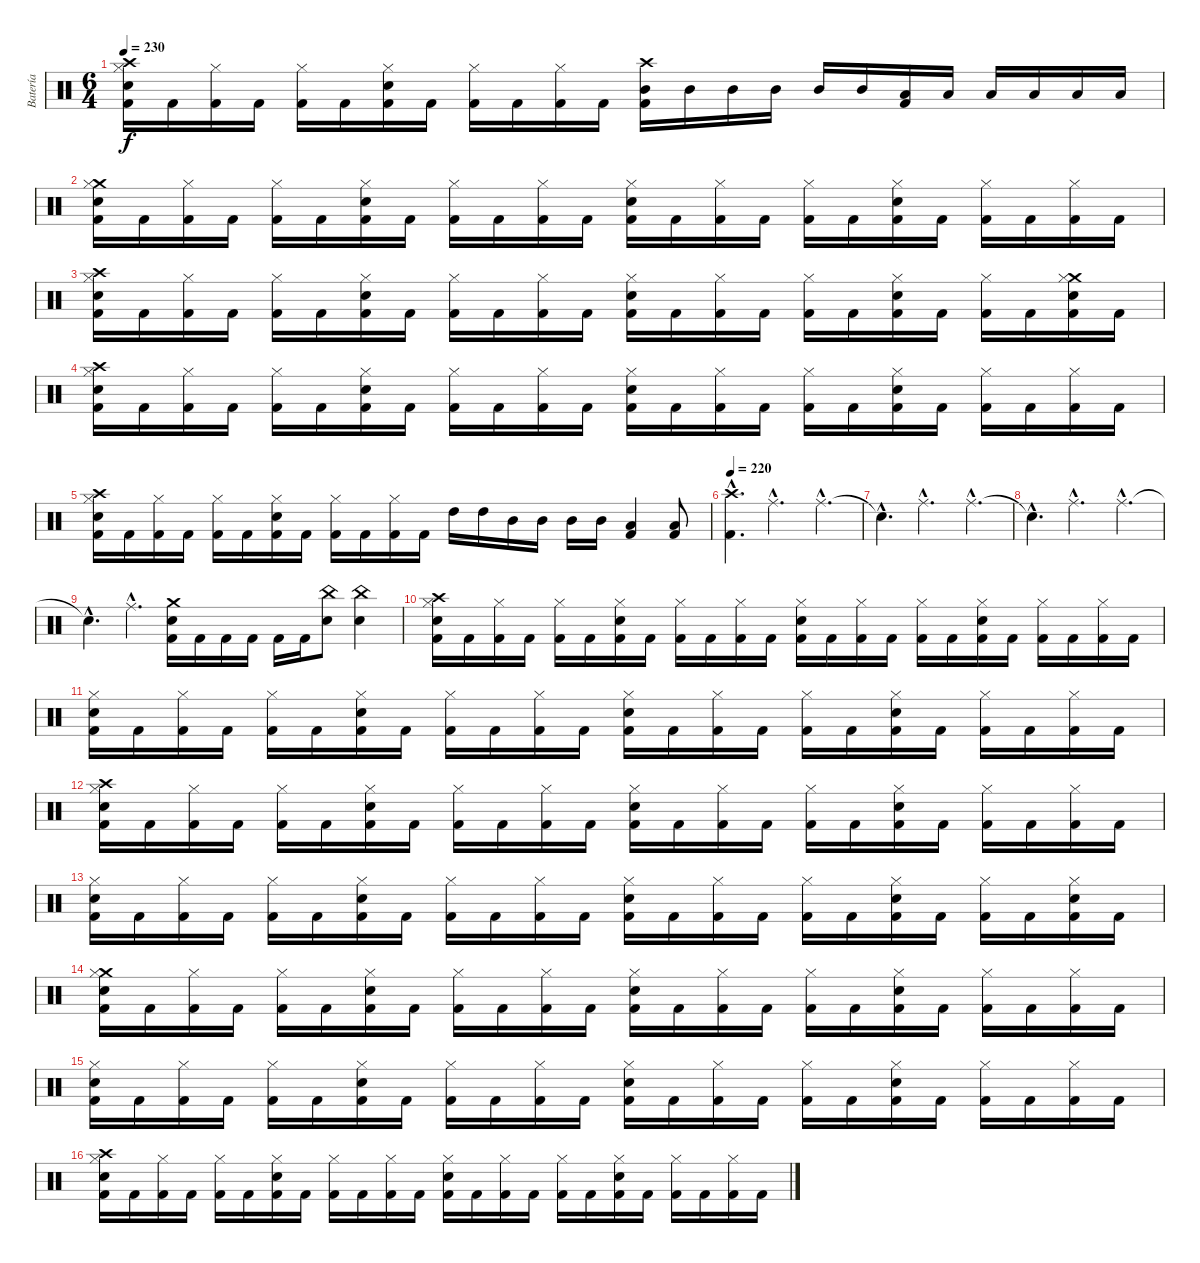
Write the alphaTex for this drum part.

\track ("Batería" "Batería") {instrument percussion}
\staff {score}
\articulation defaults
\ts (6 4)
\tempo 230
\clef neutral
\ks c
("Crash high (hit)" "Electric Snare (hit)" "Hi-Hat (closed)" "Kick (hit) 2").16{dy f} "Kick (hit) 2".16 ("Hi-Hat (closed)" "Kick (hit) 2").16 "Kick (hit) 2".16 ("Hi-Hat (closed)" "Kick (hit) 2").16 "Kick (hit) 2".16 ("Electric Snare (hit)" "Hi-Hat (closed)" "Kick (hit) 2").16 "Kick (hit) 2".16 ("Hi-Hat (closed)" "Kick (hit) 2").16 "Kick (hit) 2".16 ("Hi-Hat (closed)" "Kick (hit) 2").16 "Kick (hit) 2".16 ("Crash high (hit)" "Kick (hit) 2" "Mid Tom (hit)").16 "Mid Tom (hit)".16 "Mid Tom (hit)".16 "Mid Tom (hit)".16 "Mid Tom (hit)".16 "Mid Tom (hit)".16 ("Kick (hit) 2" "Low Tom (hit)").16 "Low Tom (hit)".16 "Low Tom (hit)".16 "Low Tom (hit)".16 "Low Tom (hit)".16 "Low Tom (hit)".16 |
("Crash medium (hit)" "Electric Snare (hit)" "Hi-Hat (closed)" "Kick (hit) 2").16 "Kick (hit) 2".16 ("Hi-Hat (closed)" "Kick (hit) 2").16 "Kick (hit) 2".16 ("Hi-Hat (closed)" "Kick (hit) 2").16 "Kick (hit) 2".16 ("Electric Snare (hit)" "Hi-Hat (closed)" "Kick (hit) 2").16 "Kick (hit) 2".16 ("Hi-Hat (closed)" "Kick (hit) 2").16 "Kick (hit) 2".16 ("Hi-Hat (closed)" "Kick (hit) 2").16 "Kick (hit) 2".16 ("Electric Snare (hit)" "Hi-Hat (closed)" "Kick (hit) 2").16 "Kick (hit) 2".16 ("Hi-Hat (closed)" "Kick (hit) 2").16 "Kick (hit) 2".16 ("Hi-Hat (closed)" "Kick (hit) 2").16 "Kick (hit) 2".16 ("Electric Snare (hit)" "Hi-Hat (closed)" "Kick (hit) 2").16 "Kick (hit) 2".16 ("Hi-Hat (closed)" "Kick (hit) 2").16 "Kick (hit) 2".16 ("Hi-Hat (closed)" "Kick (hit) 2").16 "Kick (hit) 2".16 |
("Crash high (hit)" "Electric Snare (hit)" "Hi-Hat (closed)" "Kick (hit) 2").16 "Kick (hit) 2".16 ("Hi-Hat (closed)" "Kick (hit) 2").16 "Kick (hit) 2".16 ("Hi-Hat (closed)" "Kick (hit) 2").16 "Kick (hit) 2".16 ("Electric Snare (hit)" "Hi-Hat (closed)" "Kick (hit) 2").16 "Kick (hit) 2".16 ("Hi-Hat (closed)" "Kick (hit) 2").16 "Kick (hit) 2".16 ("Hi-Hat (closed)" "Kick (hit) 2").16 "Kick (hit) 2".16 ("Electric Snare (hit)" "Hi-Hat (closed)" "Kick (hit) 2").16 "Kick (hit) 2".16 ("Hi-Hat (closed)" "Kick (hit) 2").16 "Kick (hit) 2".16 ("Hi-Hat (closed)" "Kick (hit) 2").16 "Kick (hit) 2".16 ("Electric Snare (hit)" "Hi-Hat (closed)" "Kick (hit) 2").16 "Kick (hit) 2".16 ("Hi-Hat (closed)" "Kick (hit) 2").16 "Kick (hit) 2".16 ("Crash medium (hit)" "Electric Snare (hit)" "Hi-Hat (closed)" "Kick (hit) 2").16 "Kick (hit) 2".16 |
("Crash high (hit)" "Electric Snare (hit)" "Hi-Hat (closed)" "Kick (hit) 2").16 "Kick (hit) 2".16 ("Hi-Hat (closed)" "Kick (hit) 2").16 "Kick (hit) 2".16 ("Hi-Hat (closed)" "Kick (hit) 2").16 "Kick (hit) 2".16 ("Electric Snare (hit)" "Hi-Hat (closed)" "Kick (hit) 2").16 "Kick (hit) 2".16 ("Hi-Hat (closed)" "Kick (hit) 2").16 "Kick (hit) 2".16 ("Hi-Hat (closed)" "Kick (hit) 2").16 "Kick (hit) 2".16 ("Electric Snare (hit)" "Hi-Hat (closed)" "Kick (hit) 2").16 "Kick (hit) 2".16 ("Hi-Hat (closed)" "Kick (hit) 2").16 "Kick (hit) 2".16 ("Hi-Hat (closed)" "Kick (hit) 2").16 "Kick (hit) 2".16 ("Electric Snare (hit)" "Hi-Hat (closed)" "Kick (hit) 2").16 "Kick (hit) 2".16 ("Hi-Hat (closed)" "Kick (hit) 2").16 "Kick (hit) 2".16 ("Hi-Hat (closed)" "Kick (hit) 2").16 "Kick (hit) 2".16 |
("Crash high (hit)" "Electric Snare (hit)" "Hi-Hat (closed)" "Kick (hit) 2").16 "Kick (hit) 2".16 ("Hi-Hat (closed)" "Kick (hit) 2").16 "Kick (hit) 2".16 ("Hi-Hat (closed)" "Kick (hit) 2").16 "Kick (hit) 2".16 ("Electric Snare (hit)" "Hi-Hat (closed)" "Kick (hit) 2").16 "Kick (hit) 2".16 ("Hi-Hat (closed)" "Kick (hit) 2").16 "Kick (hit) 2".16 ("Hi-Hat (closed)" "Kick (hit) 2").16 "Kick (hit) 2".16 "High Tom (hit)".16 "High Tom (hit)".16 "Mid Tom (hit)".16 "Mid Tom (hit)".16 "Mid Tom (hit)".16 "Mid Tom (hit)".16 ("Low Tom (hit)" "Kick (hit) 2").4 ("Low Tom (hit)" "Kick (hit) 2").8 |
\tempo 220
("Crash high (hit)"{hac} "Kick (hit) 2"{hac}).4{d} "Ride (middle)"{hac}.2{d} "Ride (middle)"{hac}.4{d} |
"Snare (hit)"{hac t}.4{d} "Ride (middle)"{hac}.2{d} "Ride (middle)"{hac}.4{d} |
"Snare (hit)"{hac t}.4{d} "Ride (middle)"{hac}.2{d} "Ride (middle)"{hac}.4{d} |
"Snare (hit)"{hac t}.4{d} "Ride (middle)"{hac}.4{d} ("Crash medium (hit)" "Electric Snare (hit)" "Kick (hit) 2").16 "Kick (hit) 2".16 "Kick (hit) 2".16 "Kick (hit) 2".16 "Kick (hit) 2".16 "Kick (hit) 2".16 ("China (hit)" "Electric Snare (hit)").8 ("China (hit)" "Electric Snare (hit)").4 |
("Crash high (hit)" "Electric Snare (hit)" "Hi-Hat (closed)" "Kick (hit) 2").16 "Kick (hit) 2".16 ("Hi-Hat (closed)" "Kick (hit) 2").16 "Kick (hit) 2".16 ("Hi-Hat (closed)" "Kick (hit) 2").16 "Kick (hit) 2".16 ("Electric Snare (hit)" "Hi-Hat (closed)" "Kick (hit) 2").16 "Kick (hit) 2".16 ("Hi-Hat (closed)" "Kick (hit) 2").16 "Kick (hit) 2".16 ("Hi-Hat (closed)" "Kick (hit) 2").16 "Kick (hit) 2".16 ("Electric Snare (hit)" "Hi-Hat (closed)" "Kick (hit) 2").16 "Kick (hit) 2".16 ("Hi-Hat (closed)" "Kick (hit) 2").16 "Kick (hit) 2".16 ("Hi-Hat (closed)" "Kick (hit) 2").16 "Kick (hit) 2".16 ("Electric Snare (hit)" "Hi-Hat (closed)" "Kick (hit) 2").16 "Kick (hit) 2".16 ("Hi-Hat (closed)" "Kick (hit) 2").16 "Kick (hit) 2".16 ("Hi-Hat (closed)" "Kick (hit) 2").16 "Kick (hit) 2".16 |
("Electric Snare (hit)" "Hi-Hat (closed)" "Kick (hit) 2").16 "Kick (hit) 2".16 ("Hi-Hat (closed)" "Kick (hit) 2").16 "Kick (hit) 2".16 ("Hi-Hat (closed)" "Kick (hit) 2").16 "Kick (hit) 2".16 ("Electric Snare (hit)" "Hi-Hat (closed)" "Kick (hit) 2").16 "Kick (hit) 2".16 ("Hi-Hat (closed)" "Kick (hit) 2").16 "Kick (hit) 2".16 ("Hi-Hat (closed)" "Kick (hit) 2").16 "Kick (hit) 2".16 ("Electric Snare (hit)" "Hi-Hat (closed)" "Kick (hit) 2").16 "Kick (hit) 2".16 ("Hi-Hat (closed)" "Kick (hit) 2").16 "Kick (hit) 2".16 ("Hi-Hat (closed)" "Kick (hit) 2").16 "Kick (hit) 2".16 ("Electric Snare (hit)" "Hi-Hat (closed)" "Kick (hit) 2").16 "Kick (hit) 2".16 ("Hi-Hat (closed)" "Kick (hit) 2").16 "Kick (hit) 2".16 ("Hi-Hat (closed)" "Kick (hit) 2").16 "Kick (hit) 2".16 |
("Crash high (hit)" "Electric Snare (hit)" "Hi-Hat (closed)" "Kick (hit) 2").16 "Kick (hit) 2".16 ("Hi-Hat (closed)" "Kick (hit) 2").16 "Kick (hit) 2".16 ("Hi-Hat (closed)" "Kick (hit) 2").16 "Kick (hit) 2".16 ("Electric Snare (hit)" "Hi-Hat (closed)" "Kick (hit) 2").16 "Kick (hit) 2".16 ("Hi-Hat (closed)" "Kick (hit) 2").16 "Kick (hit) 2".16 ("Hi-Hat (closed)" "Kick (hit) 2").16 "Kick (hit) 2".16 ("Electric Snare (hit)" "Hi-Hat (closed)" "Kick (hit) 2").16 "Kick (hit) 2".16 ("Hi-Hat (closed)" "Kick (hit) 2").16 "Kick (hit) 2".16 ("Hi-Hat (closed)" "Kick (hit) 2").16 "Kick (hit) 2".16 ("Electric Snare (hit)" "Hi-Hat (closed)" "Kick (hit) 2").16 "Kick (hit) 2".16 ("Hi-Hat (closed)" "Kick (hit) 2").16 "Kick (hit) 2".16 ("Hi-Hat (closed)" "Kick (hit) 2").16 "Kick (hit) 2".16 |
("Electric Snare (hit)" "Hi-Hat (closed)" "Kick (hit) 2").16 "Kick (hit) 2".16 ("Hi-Hat (closed)" "Kick (hit) 2").16 "Kick (hit) 2".16 ("Hi-Hat (closed)" "Kick (hit) 2").16 "Kick (hit) 2".16 ("Electric Snare (hit)" "Hi-Hat (closed)" "Kick (hit) 2").16 "Kick (hit) 2".16 ("Hi-Hat (closed)" "Kick (hit) 2").16 "Kick (hit) 2".16 ("Hi-Hat (closed)" "Kick (hit) 2").16 "Kick (hit) 2".16 ("Electric Snare (hit)" "Hi-Hat (closed)" "Kick (hit) 2").16 "Kick (hit) 2".16 ("Hi-Hat (closed)" "Kick (hit) 2").16 "Kick (hit) 2".16 ("Hi-Hat (closed)" "Kick (hit) 2").16 "Kick (hit) 2".16 ("Electric Snare (hit)" "Hi-Hat (closed)" "Kick (hit) 2").16 "Kick (hit) 2".16 ("Hi-Hat (closed)" "Kick (hit) 2").16 "Kick (hit) 2".16 ("Electric Snare (hit)" "Hi-Hat (closed)" "Kick (hit) 2").16 "Kick (hit) 2".16 |
("Crash medium (hit)" "Electric Snare (hit)" "Hi-Hat (closed)" "Kick (hit) 2").16 "Kick (hit) 2".16 ("Hi-Hat (closed)" "Kick (hit) 2").16 "Kick (hit) 2".16 ("Hi-Hat (closed)" "Kick (hit) 2").16 "Kick (hit) 2".16 ("Electric Snare (hit)" "Hi-Hat (closed)" "Kick (hit) 2").16 "Kick (hit) 2".16 ("Hi-Hat (closed)" "Kick (hit) 2").16 "Kick (hit) 2".16 ("Hi-Hat (closed)" "Kick (hit) 2").16 "Kick (hit) 2".16 ("Electric Snare (hit)" "Hi-Hat (closed)" "Kick (hit) 2").16 "Kick (hit) 2".16 ("Hi-Hat (closed)" "Kick (hit) 2").16 "Kick (hit) 2".16 ("Hi-Hat (closed)" "Kick (hit) 2").16 "Kick (hit) 2".16 ("Electric Snare (hit)" "Hi-Hat (closed)" "Kick (hit) 2").16 "Kick (hit) 2".16 ("Hi-Hat (closed)" "Kick (hit) 2").16 "Kick (hit) 2".16 ("Hi-Hat (closed)" "Kick (hit) 2").16 "Kick (hit) 2".16 |
("Electric Snare (hit)" "Hi-Hat (closed)" "Kick (hit) 2").16 "Kick (hit) 2".16 ("Hi-Hat (closed)" "Kick (hit) 2").16 "Kick (hit) 2".16 ("Hi-Hat (closed)" "Kick (hit) 2").16 "Kick (hit) 2".16 ("Electric Snare (hit)" "Hi-Hat (closed)" "Kick (hit) 2").16 "Kick (hit) 2".16 ("Hi-Hat (closed)" "Kick (hit) 2").16 "Kick (hit) 2".16 ("Hi-Hat (closed)" "Kick (hit) 2").16 "Kick (hit) 2".16 ("Electric Snare (hit)" "Hi-Hat (closed)" "Kick (hit) 2").16 "Kick (hit) 2".16 ("Hi-Hat (closed)" "Kick (hit) 2").16 "Kick (hit) 2".16 ("Hi-Hat (closed)" "Kick (hit) 2").16 "Kick (hit) 2".16 ("Electric Snare (hit)" "Hi-Hat (closed)" "Kick (hit) 2").16 "Kick (hit) 2".16 ("Hi-Hat (closed)" "Kick (hit) 2").16 "Kick (hit) 2".16 ("Hi-Hat (closed)" "Kick (hit) 2").16 "Kick (hit) 2".16 |
("Crash high (hit)" "Electric Snare (hit)" "Hi-Hat (closed)" "Kick (hit) 2").16 "Kick (hit) 2".16 ("Hi-Hat (closed)" "Kick (hit) 2").16 "Kick (hit) 2".16 ("Hi-Hat (closed)" "Kick (hit) 2").16 "Kick (hit) 2".16 ("Electric Snare (hit)" "Hi-Hat (closed)" "Kick (hit) 2").16 "Kick (hit) 2".16 ("Hi-Hat (closed)" "Kick (hit) 2").16 "Kick (hit) 2".16 ("Hi-Hat (closed)" "Kick (hit) 2").16 "Kick (hit) 2".16 ("Electric Snare (hit)" "Hi-Hat (closed)" "Kick (hit) 2").16 "Kick (hit) 2".16 ("Hi-Hat (closed)" "Kick (hit) 2").16 "Kick (hit) 2".16 ("Hi-Hat (closed)" "Kick (hit) 2").16 "Kick (hit) 2".16 ("Electric Snare (hit)" "Hi-Hat (closed)" "Kick (hit) 2").16 "Kick (hit) 2".16 ("Hi-Hat (closed)" "Kick (hit) 2").16 "Kick (hit) 2".16 ("Hi-Hat (closed)" "Kick (hit) 2").16 "Kick (hit) 2".16
